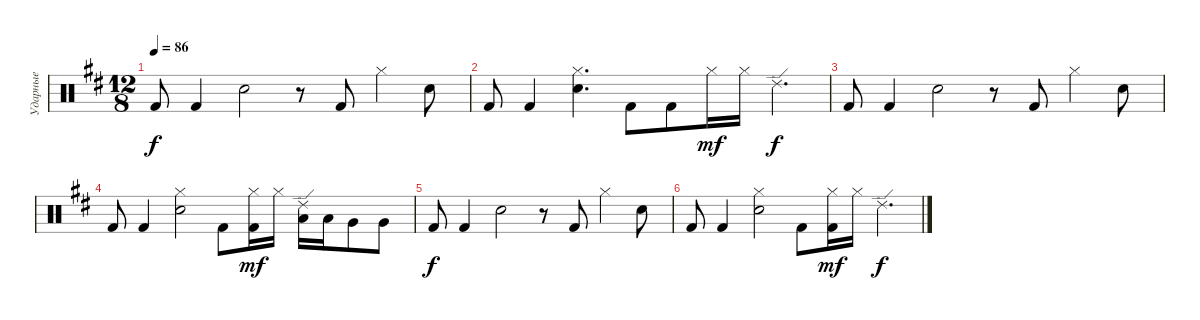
\track ("Ударные" "Ударные") {instrument percussion}
\staff {score}
\articulation defaults
\ts (12 8)
\tempo 86
\clef neutral
\ks d "Kick (hit) 2".8{dy f} "Kick (hit) 2".4 "Electric Snare (hit)".2
r.8 "Kick (hit) 2".8 "Hi-Hat (closed)".4 "Snare (hit) 2".8 |
"Kick (hit) 2".8 "Kick (hit) 2".4 ("Snare (hit) 2" "Hi-Hat (closed)").4{d} "Kick (hit) 2".8 "Kick (hit) 2".8 "Hi-Hat (closed)".16{dy mf} "Hi-Hat (closed)".16 "Ride (edge) 2".4{d dy f} |
"Kick (hit) 2".8 "Kick (hit) 2".4 "Electric Snare (hit)".2 r.8 "Kick (hit) 2".8 "Hi-Hat (closed)".4 "Snare (hit) 2".8 |
"Kick (hit) 2".8 "Kick (hit) 2".4 ("Hi-Hat (closed)" "Snare (hit) 2").2 "Kick (hit) 2".8 ("Hi-Hat (closed)" "Kick (hit) 2").16{dy mf} "Hi-Hat (closed)".16 ("Low Floor Tom (hit)" "Ride (edge) 2").16 "Low Floor Tom (hit)".16 "Very Low Tom (hit)".8 "Very Low Tom (hit)".8 |
"Kick (hit) 2".8{dy f} "Kick (hit) 2".4 "Electric Snare (hit)".2 r.8 "Kick (hit) 2".8 "Hi-Hat (closed)".4 "Snare (hit) 2".8 |
"Kick (hit) 2".8 "Kick (hit) 2".4 ("Hi-Hat (closed)" "Snare (hit) 2").2 "Kick (hit) 2".8 ("Hi-Hat (closed)" "Kick (hit) 2").16{dy mf} "Hi-Hat (closed)".16 "Ride (edge) 2".4{d dy f}
